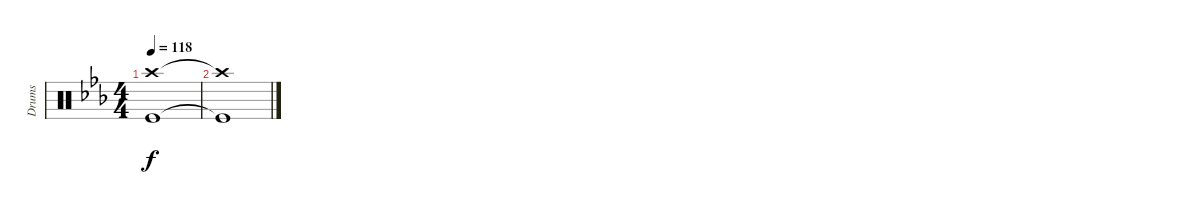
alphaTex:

\track ("Drums" "Drums") {instrument percussion}
\staff {score}
\articulation defaults
\ts (4 4)
\tempo 118
\clef neutral
\ks cminor
("Crash high (hit)" "Kick (hit)").1{dy f} |
("Crash high (hit)"{t} "Kick (hit)"{t}).1
